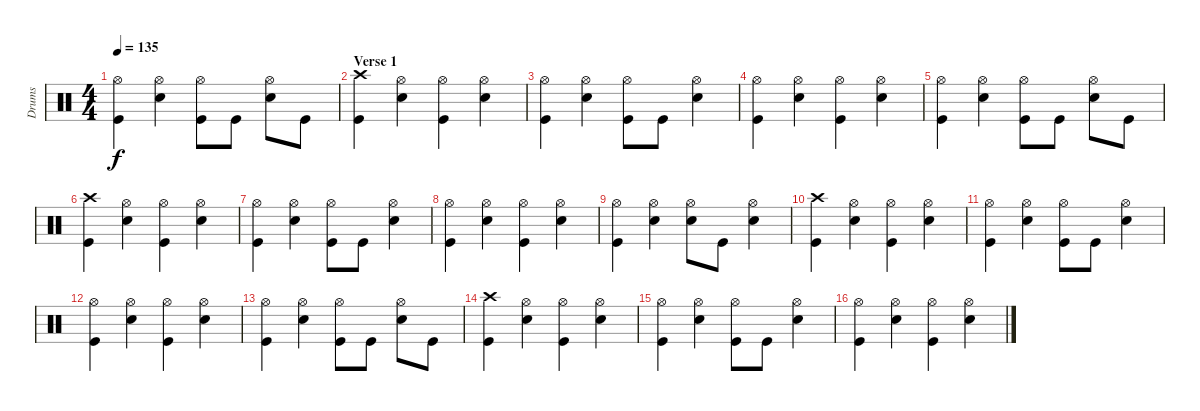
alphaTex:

\track ("Drums" "Drums") {instrument percussion}
\staff {score}
\articulation defaults
\ts (4 4)
\tempo 135
\clef neutral
\ks c
("Hi-Hat (open)" "Kick (hit)").4{dy f} ("Hi-Hat (open)" "Snare (hit) 2").4 ("Hi-Hat (open)" "Kick (hit)").8 "Kick (hit)".8 ("Hi-Hat (open)" "Snare (hit) 2").8 "Kick (hit)".8 |
\section ("" "Verse 1")
("Crash high (hit)" "Kick (hit)").4 ("Hi-Hat (open)" "Snare (hit) 2").4 ("Hi-Hat (open)" "Kick (hit)").4 ("Hi-Hat (open)" "Snare (hit) 2").4 |
("Hi-Hat (open)" "Kick (hit)").4 ("Hi-Hat (open)" "Snare (hit) 2").4 ("Hi-Hat (open)" "Kick (hit)").8 "Kick (hit)".8 ("Hi-Hat (open)" "Snare (hit) 2").4 |
("Hi-Hat (open)" "Kick (hit)").4 ("Hi-Hat (open)" "Snare (hit) 2").4 ("Hi-Hat (open)" "Kick (hit)").4 ("Hi-Hat (open)" "Snare (hit) 2").4 |
("Hi-Hat (open)" "Kick (hit)").4 ("Hi-Hat (open)" "Snare (hit) 2").4 ("Hi-Hat (open)" "Kick (hit)").8 "Kick (hit)".8 ("Hi-Hat (open)" "Snare (hit) 2").8 "Kick (hit)".8 |
("Crash high (hit)" "Kick (hit)").4 ("Hi-Hat (open)" "Snare (hit) 2").4 ("Hi-Hat (open)" "Kick (hit)").4 ("Hi-Hat (open)" "Snare (hit) 2").4 |
("Hi-Hat (open)" "Kick (hit)").4 ("Hi-Hat (open)" "Snare (hit) 2").4 ("Hi-Hat (open)" "Kick (hit)").8 "Kick (hit)".8 ("Hi-Hat (open)" "Snare (hit) 2").4 |
("Hi-Hat (open)" "Kick (hit)").4 ("Hi-Hat (open)" "Snare (hit) 2").4 ("Hi-Hat (open)" "Kick (hit)").4 ("Hi-Hat (open)" "Snare (hit) 2").4 |
("Hi-Hat (open)" "Kick (hit)").4 ("Hi-Hat (open)" "Snare (hit) 2").4 ("Hi-Hat (open)" "Snare (hit) 2").8 "Kick (hit)".8 ("Hi-Hat (open)" "Snare (hit) 2").4 |
("Crash high (hit)" "Kick (hit)").4 ("Hi-Hat (open)" "Snare (hit) 2").4 ("Hi-Hat (open)" "Kick (hit)").4 ("Hi-Hat (open)" "Snare (hit) 2").4 |
("Hi-Hat (open)" "Kick (hit)").4 ("Hi-Hat (open)" "Snare (hit) 2").4 ("Hi-Hat (open)" "Kick (hit)").8 "Kick (hit)".8 ("Hi-Hat (open)" "Snare (hit) 2").4 |
("Hi-Hat (open)" "Kick (hit)").4 ("Hi-Hat (open)" "Snare (hit) 2").4 ("Hi-Hat (open)" "Kick (hit)").4 ("Hi-Hat (open)" "Snare (hit) 2").4 |
("Hi-Hat (open)" "Kick (hit)").4 ("Hi-Hat (open)" "Snare (hit) 2").4 ("Hi-Hat (open)" "Kick (hit)").8 "Kick (hit)".8 ("Hi-Hat (open)" "Snare (hit) 2").8 "Kick (hit)".8 |
("Crash high (hit)" "Kick (hit)").4 ("Hi-Hat (open)" "Snare (hit) 2").4 ("Hi-Hat (open)" "Kick (hit)").4 ("Hi-Hat (open)" "Snare (hit) 2").4 |
("Hi-Hat (open)" "Kick (hit)").4 ("Hi-Hat (open)" "Snare (hit) 2").4 ("Hi-Hat (open)" "Kick (hit)").8 "Kick (hit)".8 ("Hi-Hat (open)" "Snare (hit) 2").4 |
("Hi-Hat (open)" "Kick (hit)").4 ("Hi-Hat (open)" "Snare (hit) 2").4 ("Hi-Hat (open)" "Kick (hit)").4 ("Hi-Hat (open)" "Snare (hit) 2").4
